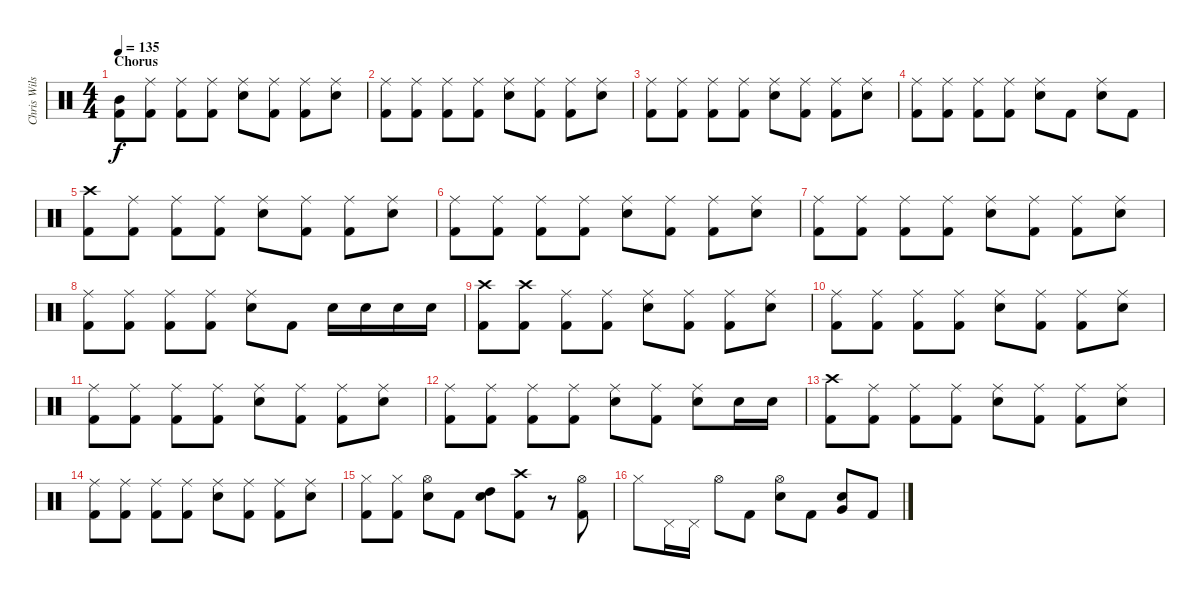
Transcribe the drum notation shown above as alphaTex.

\track ("Chris Wilson - Drums" "Chris Wils") {instrument percussion}
\staff {score}
\articulation defaults
\ts (4 4)
\section ("" "Chorus")
\tempo 135
\clef neutral
\ks c
("Mid Tom (hit)" "Kick (hit) 2").8{dy f} ("Ride (middle)" "Kick (hit) 2").8 ("Ride (middle)" "Kick (hit) 2").8 ("Ride (middle)" "Kick (hit) 2").8 ("Ride (middle)" "Snare (hit) 2").8 ("Ride (middle)" "Kick (hit) 2").8 ("Ride (middle)" "Kick (hit) 2").8 ("Ride (middle)" "Snare (hit) 2").8 |
("Ride (middle)" "Kick (hit) 2").8 ("Ride (middle)" "Kick (hit) 2").8 ("Ride (middle)" "Kick (hit) 2").8 ("Ride (middle)" "Kick (hit) 2").8 ("Ride (middle)" "Snare (hit) 2").8 ("Ride (middle)" "Kick (hit) 2").8 ("Ride (middle)" "Kick (hit) 2").8 ("Ride (middle)" "Snare (hit) 2").8 |
("Ride (middle)" "Kick (hit) 2").8 ("Ride (middle)" "Kick (hit) 2").8 ("Ride (middle)" "Kick (hit) 2").8 ("Ride (middle)" "Kick (hit) 2").8 ("Ride (middle)" "Snare (hit) 2").8 ("Ride (middle)" "Kick (hit) 2").8 ("Ride (middle)" "Kick (hit) 2").8 ("Ride (middle)" "Snare (hit) 2").8 |
("Ride (middle)" "Kick (hit) 2").8 ("Ride (middle)" "Kick (hit) 2").8 ("Ride (middle)" "Kick (hit) 2").8 ("Ride (middle)" "Kick (hit) 2").8 ("Ride (middle)" "Snare (hit) 2").8 "Kick (hit) 2".8 ("Ride (middle)" "Snare (hit) 2").8 "Kick (hit) 2".8 |
("Crash high (hit)" "Kick (hit) 2").8 ("Ride (middle)" "Kick (hit) 2").8 ("Ride (middle)" "Kick (hit) 2").8 ("Ride (middle)" "Kick (hit) 2").8 ("Ride (middle)" "Snare (hit) 2").8 ("Ride (middle)" "Kick (hit) 2").8 ("Ride (middle)" "Kick (hit) 2").8 ("Ride (middle)" "Snare (hit) 2").8 |
("Ride (middle)" "Kick (hit) 2").8 ("Ride (middle)" "Kick (hit) 2").8 ("Ride (middle)" "Kick (hit) 2").8 ("Ride (middle)" "Kick (hit) 2").8 ("Ride (middle)" "Snare (hit) 2").8 ("Ride (middle)" "Kick (hit) 2").8 ("Ride (middle)" "Kick (hit) 2").8 ("Ride (middle)" "Snare (hit) 2").8 |
("Ride (middle)" "Kick (hit) 2").8 ("Ride (middle)" "Kick (hit) 2").8 ("Ride (middle)" "Kick (hit) 2").8 ("Ride (middle)" "Kick (hit) 2").8 ("Ride (middle)" "Snare (hit) 2").8 ("Ride (middle)" "Kick (hit) 2").8 ("Ride (middle)" "Kick (hit) 2").8 ("Ride (middle)" "Snare (hit) 2").8 |
("Ride (middle)" "Kick (hit) 2").8 ("Ride (middle)" "Kick (hit) 2").8 ("Ride (middle)" "Kick (hit) 2").8 ("Ride (middle)" "Kick (hit) 2").8 ("Ride (middle)" "Snare (hit) 2").8 "Kick (hit) 2".8 "Snare (hit) 2".16 "Snare (hit) 2".16 "Snare (hit) 2".16 "Snare (hit) 2".16 |
("Crash high (hit)" "Kick (hit) 2").8 ("Crash high (hit)" "Kick (hit) 2").8 ("Ride (middle)" "Kick (hit) 2").8 ("Ride (middle)" "Kick (hit) 2").8 ("Ride (middle)" "Snare (hit) 2").8 ("Ride (middle)" "Kick (hit) 2").8 ("Ride (middle)" "Kick (hit) 2").8 ("Ride (middle)" "Snare (hit) 2").8 |
("Ride (middle)" "Kick (hit) 2").8 ("Ride (middle)" "Kick (hit) 2").8 ("Ride (middle)" "Kick (hit) 2").8 ("Ride (middle)" "Kick (hit) 2").8 ("Ride (middle)" "Snare (hit) 2").8 ("Ride (middle)" "Kick (hit) 2").8 ("Ride (middle)" "Kick (hit) 2").8 ("Ride (middle)" "Snare (hit) 2").8 |
("Ride (middle)" "Kick (hit) 2").8 ("Ride (middle)" "Kick (hit) 2").8 ("Ride (middle)" "Kick (hit) 2").8 ("Ride (middle)" "Kick (hit) 2").8 ("Ride (middle)" "Snare (hit) 2").8 ("Ride (middle)" "Kick (hit) 2").8 ("Ride (middle)" "Kick (hit) 2").8 ("Ride (middle)" "Snare (hit) 2").8 |
("Ride (middle)" "Kick (hit) 2").8 ("Ride (middle)" "Kick (hit) 2").8 ("Ride (middle)" "Kick (hit) 2").8 ("Ride (middle)" "Kick (hit) 2").8 ("Ride (middle)" "Snare (hit) 2").8 ("Ride (middle)" "Kick (hit) 2").8 ("Ride (middle)" "Snare (hit) 2").8 "Snare (hit) 2".16 "Snare (hit) 2".16 |
("Crash high (hit)" "Kick (hit) 2").8 ("Ride (middle)" "Kick (hit) 2").8 ("Ride (middle)" "Kick (hit) 2").8 ("Ride (middle)" "Kick (hit) 2").8 ("Ride (middle)" "Snare (hit) 2").8 ("Ride (middle)" "Kick (hit) 2").8 ("Ride (middle)" "Kick (hit) 2").8 ("Ride (middle)" "Snare (hit) 2").8 |
("Ride (middle)" "Kick (hit) 2").8 ("Ride (middle)" "Kick (hit) 2").8 ("Ride (middle)" "Kick (hit) 2").8 ("Ride (middle)" "Kick (hit) 2").8 ("Ride (middle)" "Snare (hit) 2").8 ("Ride (middle)" "Kick (hit) 2").8 ("Ride (middle)" "Kick (hit) 2").8 ("Ride (middle)" "Snare (hit) 2").8 |
("Hi-Hat (closed)" "Kick (hit) 2").8 ("Hi-Hat (closed)" "Kick (hit) 2").8 ("Hi-Hat (open)" "Snare (hit) 2").8 "Kick (hit) 2".8 ("High Tom (hit)" "Snare (hit) 2").8 ("Crash high (hit)" "Kick (hit) 2").8 r.8 ("Hi-Hat (open)" "Kick (hit) 2").8 |
"Hi-Hat (closed)".8 "Pedal Hi-Hat (hit)".16 "Pedal Hi-Hat (hit)".16 "Hi-Hat (open)".8 "Kick (hit) 2".8 ("Hi-Hat (open)" "Snare (hit) 2").8 "Kick (hit) 2".8 ("Snare (hit) 2" "Very Low Tom (hit)").8 "Kick (hit) 2".8
